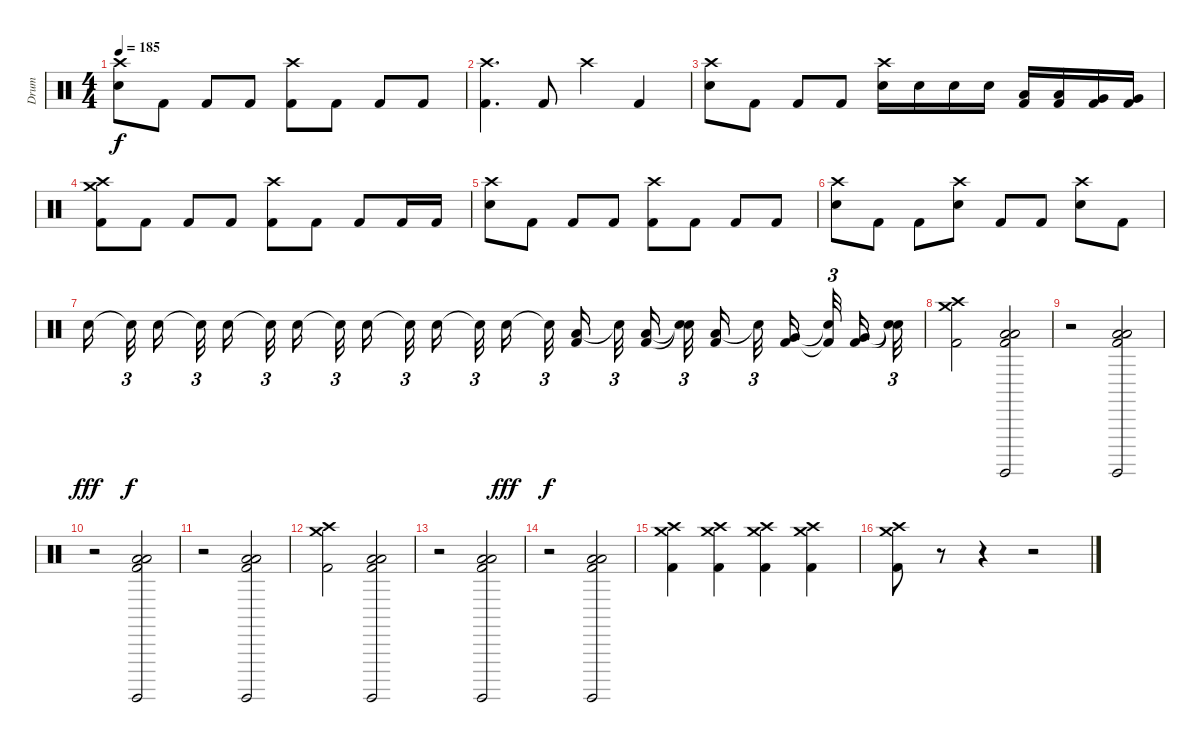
\track ("Drum" "Drum") {instrument percussion}
\staff
\articulation defaults
\ts (4 4)
\tempo 185
\clef neutral
\ks c
("Crash high (hit)" "Electric Snare (hit)").8{dy f} "Kick (hit) 2".8 "Kick (hit) 2".8 "Kick (hit) 2".8 ("Crash high (hit)" "Kick (hit) 2").8 "Kick (hit) 2".8 "Kick (hit) 2".8 "Kick (hit) 2".8 |
("Crash high (hit)" "Kick (hit) 2").4{d} "Kick (hit) 2".8 "Crash high (hit)".4 "Kick (hit) 2".4 |
("Crash high (hit)" "Electric Snare (hit)").8 "Kick (hit) 2".8 "Kick (hit) 2".8 "Kick (hit) 2".8 ("Crash high (hit)" "Electric Snare (hit)").16 "Electric Snare (hit)".16 "Electric Snare (hit)".16 "Electric Snare (hit)".16 ("Low Tom (hit)" "Kick (hit) 2").16 ("Low Tom (hit)" "Kick (hit) 2").16 ("Very Low Tom (hit)" "Kick (hit) 2").16 ("Very Low Tom (hit)" "Kick (hit) 2").16 |
("Crash high (hit)" "Crash medium (hit)" "Kick (hit) 2").8 "Kick (hit) 2".8 "Kick (hit) 2".8 "Kick (hit) 2".8 ("Crash high (hit)" "Kick (hit) 2").8 "Kick (hit) 2".8 "Kick (hit) 2".8 "Kick (hit) 2".16 "Kick (hit) 2".16 |
("Crash high (hit)" "Electric Snare (hit)").8 "Kick (hit) 2".8 "Kick (hit) 2".8 "Kick (hit) 2".8 ("Crash high (hit)" "Kick (hit) 2").8 "Kick (hit) 2".8 "Kick (hit) 2".8 "Kick (hit) 2".8 |
("Crash high (hit)" "Electric Snare (hit)").8 "Kick (hit) 2".8 "Kick (hit) 2".8 ("Crash high (hit)" "Electric Snare (hit)").8 "Kick (hit) 2".8 "Kick (hit) 2".8 ("Crash high (hit)" "Electric Snare (hit)").8 "Kick (hit) 2".8 |
"Electric Snare (hit)".16{dy fff beam splitsecondary} "Snare (hit)"{t}.32{tu (3 2) dy f beam splitsecondary} "Electric Snare (hit)".16{beam splitsecondary} "Snare (hit)"{t}.32{tu (3 2) beam splitsecondary} "Electric Snare (hit)".16 "Snare (hit)"{t}.32{tu (3 2)} "Electric Snare (hit)".16{beam splitsecondary} "Snare (hit)"{t}.32{tu (3 2) beam splitsecondary} "Electric Snare (hit)".16{beam splitsecondary} "Snare (hit)"{t}.32{tu (3 2) beam splitsecondary} "Electric Snare (hit)".16 "Snare (hit)"{t}.32{tu (3 2)} "Electric Snare (hit)".16{dy fff beam splitsecondary} "Snare (hit)"{t}.32{tu (3 2) dy f beam splitsecondary} ("Low Tom (hit)" "Kick (hit) 2").16{beam splitsecondary} "Snare (hit)"{t}.32{tu (3 2) beam splitsecondary} ("Low Tom (hit)" "Kick (hit) 2").16 ("Snare (hit)"{t} "Snare (hit)"{t}).32{tu (3 2)} ("Low Tom (hit)" "Kick (hit) 2").16{beam splitsecondary} "Snare (hit)"{t}.32{tu (3 2) beam splitsecondary} ("Very Low Tom (hit)" "Kick (hit) 2").16{beam splitsecondary} ("Snare (hit)"{t} "Kick (hit) 2"{t}).32{tu (3 2) beam splitsecondary} ("Very Low Tom (hit)" "Kick (hit) 2").16 ("Snare (hit)"{t} "Snare (hit)"{t}).32{tu (3 2)} |
("Crash high (hit)" "Crash medium (hit)" "Kick (hit) 2").2 ("Surdo (hit)" "Low Tom (hit)" "Low Tom (hit)" "Kick (hit) 2").2 |
r.2 ("Surdo (hit)" "Low Tom (hit)" "Low Tom (hit)" "Kick (hit) 2").2 |
r.2 ("Surdo (hit)" "Low Tom (hit)" "Low Tom (hit)" "Kick (hit) 2").2 |
r.2 ("Surdo (hit)" "Low Tom (hit)" "Low Tom (hit)" "Kick (hit) 2").2 |
("Crash high (hit)" "Crash medium (hit)" "Kick (hit) 2").2 ("Surdo (hit)" "Low Tom (hit)" "Low Tom (hit)" "Kick (hit) 2").2 |
r.2 ("Surdo (hit)" "Low Tom (hit)" "Low Tom (hit)" "Kick (hit) 2").2 |
r.2 ("Surdo (hit)" "Low Tom (hit)" "Low Tom (hit)" "Kick (hit) 2").2 |
("Crash high (hit)" "Crash medium (hit)" "Kick (hit) 2").4 ("Crash high (hit)" "Crash medium (hit)" "Kick (hit) 2").4 ("Crash high (hit)" "Crash medium (hit)" "Kick (hit) 2").4 ("Crash high (hit)" "Crash medium (hit)" "Kick (hit) 2").4 |
("Crash high (hit)" "Crash medium (hit)" "Kick (hit) 2").8 r.8 r.4 r.2
